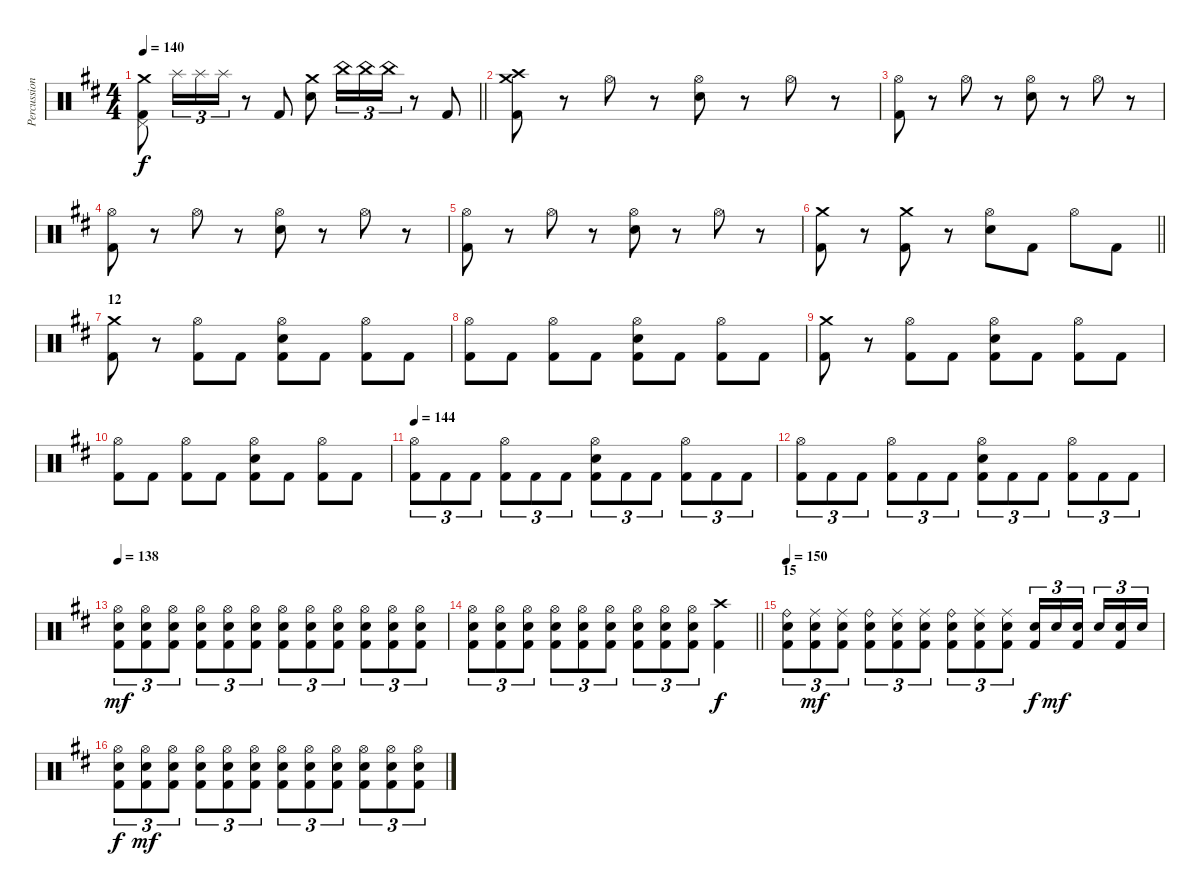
\track ("Percussion" "Percussion") {instrument percussion}
\staff {score}
\articulation defaults
\ts (4 4)
\tempo 140
\clef neutral
\barLineRight lightlight
\ks bminor
("Crash medium (hit)" "Pedal Hi-Hat (hit)" "Kick (hit) 2").8{dy f} "Splash (hit)".16{tu (3 2)} "Splash (hit)".16{tu (3 2)} "Splash (hit)".16{tu (3 2)} r.8 "Kick (hit) 2".8 ("Crash medium (hit)" "Snare (hit) 2").8 "China (hit)".16{tu (3 2)} "China (hit)".16{tu (3 2)} "China (hit)".16{tu (3 2)} r.8 "Kick (hit) 2".8 |
\section ("" "")
("Crash medium (hit)" "Crash high (hit)" "Kick (hit) 2").8 r.8 "Hi-Hat (open)".8 r.8 ("Hi-Hat (open)" "Snare (hit) 2").8 r.8 "Hi-Hat (open)".8 r.8 |
("Hi-Hat (open)" "Kick (hit) 2").8 r.8 "Hi-Hat (open)".8 r.8 ("Hi-Hat (open)" "Snare (hit) 2").8 r.8 "Hi-Hat (open)".8 r.8 |
("Hi-Hat (open)" "Kick (hit) 2").8 r.8 "Hi-Hat (open)".8 r.8 ("Hi-Hat (open)" "Snare (hit) 2").8 r.8 "Hi-Hat (open)".8 r.8 |
("Hi-Hat (open)" "Kick (hit) 2").8 r.8 "Hi-Hat (open)".8 r.8 ("Hi-Hat (open)" "Snare (hit) 2").8 r.8 "Hi-Hat (open)".8 r.8 |
\barLineRight lightlight
("Crash medium (hit)" "Kick (hit) 2").8 r.8 ("Crash medium (hit)" "Kick (hit) 2").8 r.8 ("Hi-Hat (open)" "Snare (hit) 2").8 "Kick (hit) 2".8 "Hi-Hat (open)".8 "Kick (hit) 2".8 |
\section ("" "12")
("Crash medium (hit)" "Kick (hit) 2").8 r.8 ("Hi-Hat (open)" "Kick (hit) 2").8 "Kick (hit) 2".8 ("Hi-Hat (open)" "Snare (hit) 2" "Kick (hit) 2").8 "Kick (hit) 2".8 ("Hi-Hat (open)" "Kick (hit) 2").8 "Kick (hit) 2".8 |
("Hi-Hat (open)" "Kick (hit) 2").8 "Kick (hit) 2".8 ("Hi-Hat (open)" "Kick (hit) 2").8 "Kick (hit) 2".8 ("Hi-Hat (open)" "Snare (hit) 2" "Kick (hit) 2").8 "Kick (hit) 2".8 ("Hi-Hat (open)" "Kick (hit) 2").8 "Kick (hit) 2".8 |
("Crash medium (hit)" "Kick (hit) 2").8 r.8 ("Hi-Hat (open)" "Kick (hit) 2").8 "Kick (hit) 2".8 ("Hi-Hat (open)" "Snare (hit) 2" "Kick (hit) 2").8 "Kick (hit) 2".8 ("Hi-Hat (open)" "Kick (hit) 2").8 "Kick (hit) 2".8 |
("Hi-Hat (open)" "Kick (hit) 2").8 "Kick (hit) 2".8 ("Hi-Hat (open)" "Kick (hit) 2").8 "Kick (hit) 2".8 ("Hi-Hat (open)" "Snare (hit) 2" "Kick (hit) 2").8 "Kick (hit) 2".8 ("Hi-Hat (open)" "Kick (hit) 2").8 "Kick (hit) 2".8 |
\tempo 144
("Hi-Hat (open)" "Kick (hit) 2").8{tu (3 2)} "Kick (hit) 2".8{tu (3 2)} "Kick (hit) 2".8{tu (3 2)} ("Hi-Hat (open)" "Kick (hit) 2").8{tu (3 2)} "Kick (hit) 2".8{tu (3 2)} "Kick (hit) 2".8{tu (3 2)} ("Hi-Hat (open)" "Snare (hit) 2" "Kick (hit) 2").8{tu (3 2)} "Kick (hit) 2".8{tu (3 2)} "Kick (hit) 2".8{tu (3 2)} ("Hi-Hat (open)" "Kick (hit) 2").8{tu (3 2)} "Kick (hit) 2".8{tu (3 2)} "Kick (hit) 2".8{tu (3 2)} |
("Hi-Hat (open)" "Kick (hit) 2").8{tu (3 2)} "Kick (hit) 2".8{tu (3 2)} "Kick (hit) 2".8{tu (3 2)} ("Hi-Hat (open)" "Kick (hit) 2").8{tu (3 2)} "Kick (hit) 2".8{tu (3 2)} "Kick (hit) 2".8{tu (3 2)} ("Hi-Hat (open)" "Snare (hit) 2" "Kick (hit) 2").8{tu (3 2)} "Kick (hit) 2".8{tu (3 2)} "Kick (hit) 2".8{tu (3 2)} ("Hi-Hat (open)" "Kick (hit) 2").8{tu (3 2)} "Kick (hit) 2".8{tu (3 2)} "Kick (hit) 2".8{tu (3 2)} |
\tempo 138
("Hi-Hat (open)" "Snare (hit) 2" "Kick (hit) 2").8{tu (3 2) dy mf} ("Hi-Hat (open)" "Snare (hit) 2" "Kick (hit) 2").8{tu (3 2)} ("Hi-Hat (open)" "Snare (hit) 2" "Kick (hit) 2").8{tu (3 2)} ("Hi-Hat (open)" "Snare (hit) 2" "Kick (hit) 2").8{tu (3 2)} ("Hi-Hat (open)" "Snare (hit) 2" "Kick (hit) 2").8{tu (3 2)} ("Hi-Hat (open)" "Snare (hit) 2" "Kick (hit) 2").8{tu (3 2)} ("Hi-Hat (open)" "Snare (hit) 2" "Kick (hit) 2").8{tu (3 2)} ("Hi-Hat (open)" "Snare (hit) 2" "Kick (hit) 2").8{tu (3 2)} ("Hi-Hat (open)" "Snare (hit) 2" "Kick (hit) 2").8{tu (3 2)} ("Hi-Hat (open)" "Snare (hit) 2" "Kick (hit) 2").8{tu (3 2)} ("Hi-Hat (open)" "Snare (hit) 2" "Kick (hit) 2").8{tu (3 2)} ("Hi-Hat (open)" "Snare (hit) 2" "Kick (hit) 2").8{tu (3 2)} |
\barLineRight lightlight
("Hi-Hat (open)" "Snare (hit) 2" "Kick (hit) 2").8{tu (3 2)} ("Hi-Hat (open)" "Snare (hit) 2" "Kick (hit) 2").8{tu (3 2)} ("Hi-Hat (open)" "Snare (hit) 2" "Kick (hit) 2").8{tu (3 2)} ("Hi-Hat (open)" "Snare (hit) 2" "Kick (hit) 2").8{tu (3 2)} ("Hi-Hat (open)" "Snare (hit) 2" "Kick (hit) 2").8{tu (3 2)} ("Hi-Hat (open)" "Snare (hit) 2" "Kick (hit) 2").8{tu (3 2)} ("Hi-Hat (open)" "Snare (hit) 2" "Kick (hit) 2").8{tu (3 2)} ("Hi-Hat (open)" "Snare (hit) 2" "Kick (hit) 2").8{tu (3 2)} ("Hi-Hat (open)" "Snare (hit) 2" "Kick (hit) 2").8{tu (3 2)} ("Crash high (hit)" "Kick (hit) 2").4{dy f} |
\section ("" "15")
\tempo 150
("Ride (bell)" "Snare (hit) 2" "Kick (hit) 2").8{tu (3 2)} ("Ride (middle)" "Snare (hit) 2" "Kick (hit) 2").8{tu (3 2) dy mf} ("Ride (middle)" "Snare (hit) 2" "Kick (hit) 2").8{tu (3 2)} ("Ride (bell)" "Snare (hit) 2" "Kick (hit) 2").8{tu (3 2)} ("Ride (middle)" "Snare (hit) 2" "Kick (hit) 2").8{tu (3 2)} ("Ride (middle)" "Snare (hit) 2" "Kick (hit) 2").8{tu (3 2)} ("Ride (bell)" "Snare (hit) 2" "Kick (hit) 2").8{tu (3 2)} ("Ride (middle)" "Snare (hit) 2" "Kick (hit) 2").8{tu (3 2)} ("Ride (middle)" "Snare (hit) 2" "Kick (hit) 2").8{tu (3 2)} ("Snare (hit) 2" "Kick (hit) 2").16{tu (3 2) dy f} "Snare (hit) 2".16{tu (3 2) dy mf} ("Snare (hit) 2" "Kick (hit) 2").16{tu (3 2) beam splitsecondary} "Snare (hit) 2".16{tu (3 2)} ("Snare (hit) 2" "Kick (hit) 2").16{tu (3 2)} "Snare (hit) 2".16{tu (3 2)} |
("Hi-Hat (open)" "Snare (hit) 2" "Kick (hit) 2").8{tu (3 2) dy f} ("Hi-Hat (open)" "Snare (hit) 2" "Kick (hit) 2").8{tu (3 2) dy mf} ("Hi-Hat (open)" "Snare (hit) 2" "Kick (hit) 2").8{tu (3 2)} ("Hi-Hat (open)" "Snare (hit) 2" "Kick (hit) 2").8{tu (3 2)} ("Hi-Hat (open)" "Snare (hit) 2" "Kick (hit) 2").8{tu (3 2)} ("Hi-Hat (open)" "Snare (hit) 2" "Kick (hit) 2").8{tu (3 2)} ("Hi-Hat (open)" "Snare (hit) 2" "Kick (hit) 2").8{tu (3 2)} ("Hi-Hat (open)" "Snare (hit) 2" "Kick (hit) 2").8{tu (3 2)} ("Hi-Hat (open)" "Snare (hit) 2" "Kick (hit) 2").8{tu (3 2)} ("Hi-Hat (open)" "Snare (hit) 2" "Kick (hit) 2").8{tu (3 2)} ("Hi-Hat (open)" "Snare (hit) 2" "Kick (hit) 2").8{tu (3 2)} ("Hi-Hat (open)" "Snare (hit) 2" "Kick (hit) 2").8{tu (3 2)}
